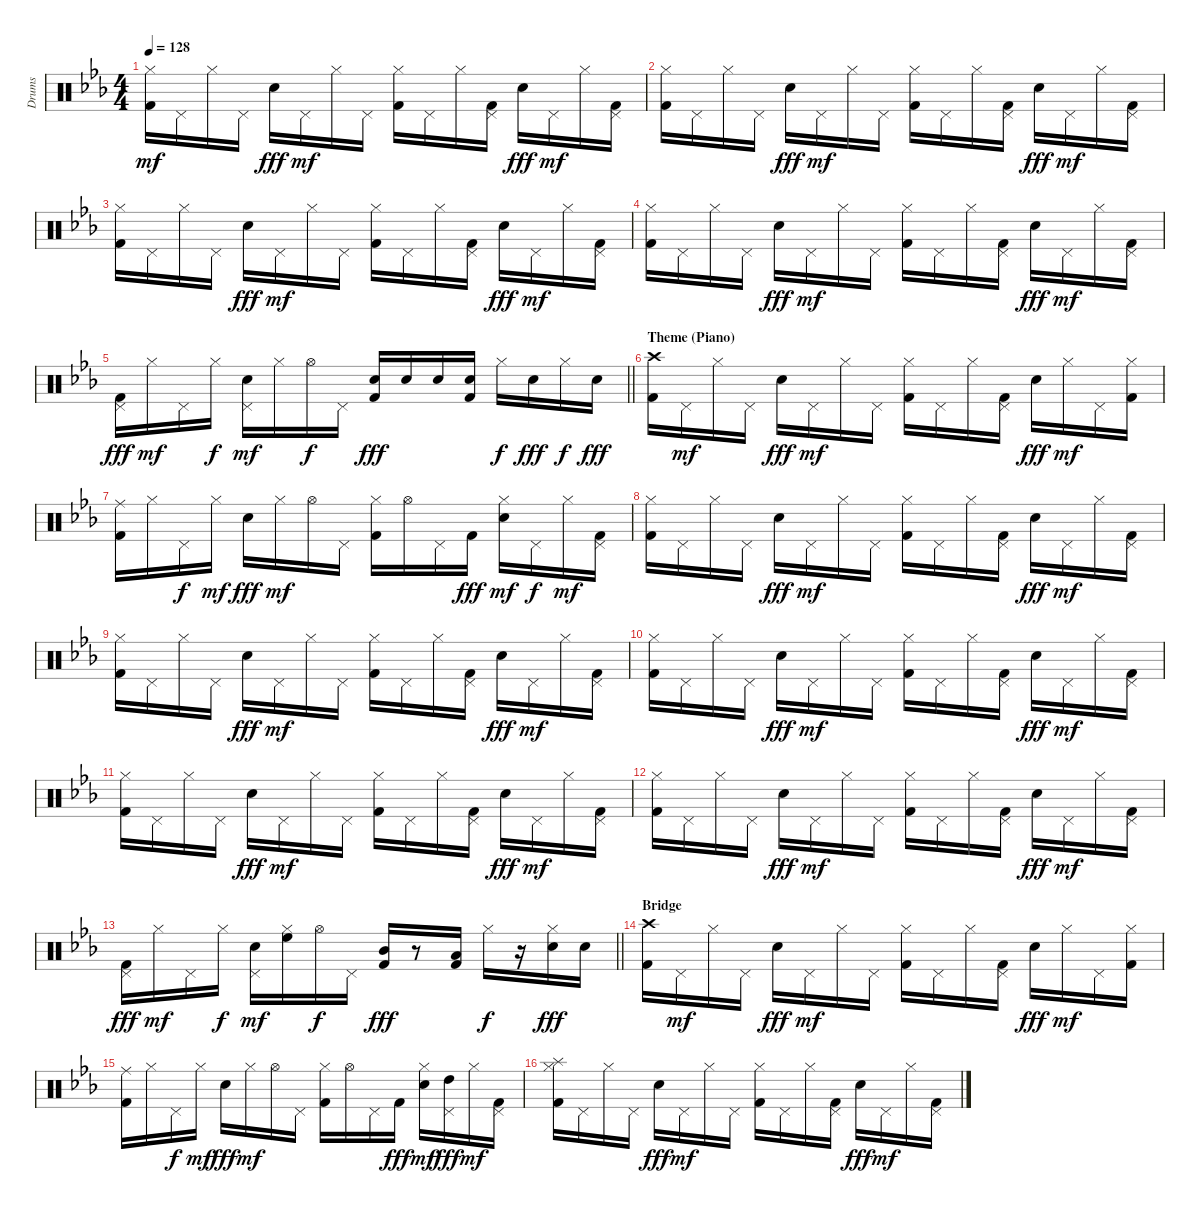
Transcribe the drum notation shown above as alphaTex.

\track ("Drums" "Drums") {instrument percussion}
\staff {score}
\articulation defaults
\ts (4 4)
\tempo 128
\clef neutral
\ks cminor
("Kick (hit) 2" "Hi-Hat (closed)").16{dy mf} "Pedal Hi-Hat (hit)".16 "Hi-Hat (closed)".16 "Pedal Hi-Hat (hit)".16 "Electric Snare (hit)".16{dy fff} "Pedal Hi-Hat (hit)".16{dy mf} "Hi-Hat (closed)".16 "Pedal Hi-Hat (hit)".16 ("Kick (hit) 2" "Hi-Hat (closed)").16 "Pedal Hi-Hat (hit)".16 "Hi-Hat (closed)".16 ("Kick (hit) 2" "Pedal Hi-Hat (hit)").16 "Electric Snare (hit)".16{dy fff} "Pedal Hi-Hat (hit)".16{dy mf} "Hi-Hat (closed)".16 ("Kick (hit) 2" "Pedal Hi-Hat (hit)").16 |
("Kick (hit) 2" "Hi-Hat (closed)").16 "Pedal Hi-Hat (hit)".16 "Hi-Hat (closed)".16 "Pedal Hi-Hat (hit)".16 "Electric Snare (hit)".16{dy fff} "Pedal Hi-Hat (hit)".16{dy mf} "Hi-Hat (closed)".16 "Pedal Hi-Hat (hit)".16 ("Kick (hit) 2" "Hi-Hat (closed)").16 "Pedal Hi-Hat (hit)".16 "Hi-Hat (closed)".16 ("Kick (hit) 2" "Pedal Hi-Hat (hit)").16 "Electric Snare (hit)".16{dy fff} "Pedal Hi-Hat (hit)".16{dy mf} "Hi-Hat (closed)".16 ("Kick (hit) 2" "Pedal Hi-Hat (hit)").16 |
("Kick (hit) 2" "Hi-Hat (closed)").16 "Pedal Hi-Hat (hit)".16 "Hi-Hat (closed)".16 "Pedal Hi-Hat (hit)".16 "Electric Snare (hit)".16{dy fff} "Pedal Hi-Hat (hit)".16{dy mf} "Hi-Hat (closed)".16 "Pedal Hi-Hat (hit)".16 ("Kick (hit) 2" "Hi-Hat (closed)").16 "Pedal Hi-Hat (hit)".16 "Hi-Hat (closed)".16 ("Kick (hit) 2" "Pedal Hi-Hat (hit)").16 "Electric Snare (hit)".16{dy fff} "Pedal Hi-Hat (hit)".16{dy mf} "Hi-Hat (closed)".16 ("Kick (hit) 2" "Pedal Hi-Hat (hit)").16 |
("Kick (hit) 2" "Hi-Hat (closed)").16 "Pedal Hi-Hat (hit)".16 "Hi-Hat (closed)".16 "Pedal Hi-Hat (hit)".16 "Electric Snare (hit)".16{dy fff} "Pedal Hi-Hat (hit)".16{dy mf} "Hi-Hat (closed)".16 "Pedal Hi-Hat (hit)".16 ("Kick (hit) 2" "Hi-Hat (closed)").16 "Pedal Hi-Hat (hit)".16 "Hi-Hat (closed)".16 ("Kick (hit) 2" "Pedal Hi-Hat (hit)").16 "Electric Snare (hit)".16{dy fff} "Pedal Hi-Hat (hit)".16{dy mf} "Hi-Hat (closed)".16 ("Kick (hit) 2" "Pedal Hi-Hat (hit)").16 |
\barLineRight lightlight
("Kick (hit) 2" "Pedal Hi-Hat (hit)").16{dy fff} "Hi-Hat (closed)".16{dy mf} "Pedal Hi-Hat (hit)".16 "Hi-Hat (closed)".16{dy f} ("Electric Snare (hit)" "Pedal Hi-Hat (hit)").16{dy mf} "Hi-Hat (closed)".16 "Hi-Hat (open)".16{dy f} "Pedal Hi-Hat (hit)".16 ("Electric Snare (hit)" "Kick (hit) 2").16{dy fff} "Electric Snare (hit)".16 "Electric Snare (hit)".16 ("Electric Snare (hit)" "Kick (hit) 2").16 "Hi-Hat (closed)".16{dy f} "Electric Snare (hit)".16{dy fff} "Hi-Hat (closed)".16{dy f} "Electric Snare (hit)".16{dy fff} |
\section ("" "Theme (Piano)")
("Kick (hit) 2" "Crash high (hit)").16 "Pedal Hi-Hat (hit)".16{dy mf} "Hi-Hat (closed)".16 "Pedal Hi-Hat (hit)".16 "Electric Snare (hit)".16{dy fff} "Pedal Hi-Hat (hit)".16{dy mf} "Hi-Hat (closed)".16 "Pedal Hi-Hat (hit)".16 ("Kick (hit) 2" "Hi-Hat (closed)").16 "Pedal Hi-Hat (hit)".16 "Hi-Hat (closed)".16 ("Kick (hit) 2" "Pedal Hi-Hat (hit)").16 "Electric Snare (hit)".16{dy fff} "Hi-Hat (closed)".16{dy mf} "Pedal Hi-Hat (hit)".16 ("Kick (hit) 2" "Hi-Hat (closed)").16 |
("Kick (hit) 2" "Ride (middle)").16 "Hi-Hat (closed)".16 "Pedal Hi-Hat (hit)".16{dy f} "Hi-Hat (closed)".16{dy mf} "Electric Snare (hit)".16{dy fff} "Hi-Hat (closed)".16{dy mf} "Hi-Hat (open)".16 "Pedal Hi-Hat (hit)".16 ("Kick (hit) 2" "Hi-Hat (closed)").16 "Hi-Hat (open)".16 "Pedal Hi-Hat (hit)".16 "Kick (hit) 2".16{dy fff} ("Electric Snare (hit)" "Hi-Hat (closed)").16{dy mf} "Pedal Hi-Hat (hit)".16{dy f} "Hi-Hat (closed)".16{dy mf} ("Kick (hit) 2" "Pedal Hi-Hat (hit)").16 |
("Kick (hit) 2" "Hi-Hat (closed)").16 "Pedal Hi-Hat (hit)".16 "Hi-Hat (closed)".16 "Pedal Hi-Hat (hit)".16 "Electric Snare (hit)".16{dy fff} "Pedal Hi-Hat (hit)".16{dy mf} "Hi-Hat (closed)".16 "Pedal Hi-Hat (hit)".16 ("Kick (hit) 2" "Hi-Hat (closed)").16 "Pedal Hi-Hat (hit)".16 "Hi-Hat (closed)".16 ("Kick (hit) 2" "Pedal Hi-Hat (hit)").16 "Electric Snare (hit)".16{dy fff} "Pedal Hi-Hat (hit)".16{dy mf} "Hi-Hat (closed)".16 ("Kick (hit) 2" "Pedal Hi-Hat (hit)").16 |
("Kick (hit) 2" "Hi-Hat (closed)").16 "Pedal Hi-Hat (hit)".16 "Hi-Hat (closed)".16 "Pedal Hi-Hat (hit)".16 "Electric Snare (hit)".16{dy fff} "Pedal Hi-Hat (hit)".16{dy mf} "Hi-Hat (closed)".16 "Pedal Hi-Hat (hit)".16 ("Kick (hit) 2" "Hi-Hat (closed)").16 "Pedal Hi-Hat (hit)".16 "Hi-Hat (closed)".16 ("Kick (hit) 2" "Pedal Hi-Hat (hit)").16 "Electric Snare (hit)".16{dy fff} "Pedal Hi-Hat (hit)".16{dy mf} "Hi-Hat (closed)".16 ("Kick (hit) 2" "Pedal Hi-Hat (hit)").16 |
("Kick (hit) 2" "Hi-Hat (closed)").16 "Pedal Hi-Hat (hit)".16 "Hi-Hat (closed)".16 "Pedal Hi-Hat (hit)".16 "Electric Snare (hit)".16{dy fff} "Pedal Hi-Hat (hit)".16{dy mf} "Hi-Hat (closed)".16 "Pedal Hi-Hat (hit)".16 ("Kick (hit) 2" "Hi-Hat (closed)").16 "Pedal Hi-Hat (hit)".16 "Hi-Hat (closed)".16 ("Kick (hit) 2" "Pedal Hi-Hat (hit)").16 "Electric Snare (hit)".16{dy fff} "Pedal Hi-Hat (hit)".16{dy mf} "Hi-Hat (closed)".16 ("Kick (hit) 2" "Pedal Hi-Hat (hit)").16 |
("Kick (hit) 2" "Hi-Hat (closed)").16 "Pedal Hi-Hat (hit)".16 "Hi-Hat (closed)".16 "Pedal Hi-Hat (hit)".16 "Electric Snare (hit)".16{dy fff} "Pedal Hi-Hat (hit)".16{dy mf} "Hi-Hat (closed)".16 "Pedal Hi-Hat (hit)".16 ("Kick (hit) 2" "Hi-Hat (closed)").16 "Pedal Hi-Hat (hit)".16 "Hi-Hat (closed)".16 ("Kick (hit) 2" "Pedal Hi-Hat (hit)").16 "Electric Snare (hit)".16{dy fff} "Pedal Hi-Hat (hit)".16{dy mf} "Hi-Hat (closed)".16 ("Kick (hit) 2" "Pedal Hi-Hat (hit)").16 |
("Kick (hit) 2" "Hi-Hat (closed)").16 "Pedal Hi-Hat (hit)".16 "Hi-Hat (closed)".16 "Pedal Hi-Hat (hit)".16 "Electric Snare (hit)".16{dy fff} "Pedal Hi-Hat (hit)".16{dy mf} "Hi-Hat (closed)".16 "Pedal Hi-Hat (hit)".16 ("Kick (hit) 2" "Hi-Hat (closed)").16 "Pedal Hi-Hat (hit)".16 "Hi-Hat (closed)".16 ("Kick (hit) 2" "Pedal Hi-Hat (hit)").16 "Electric Snare (hit)".16{dy fff} "Pedal Hi-Hat (hit)".16{dy mf} "Hi-Hat (closed)".16 ("Kick (hit) 2" "Pedal Hi-Hat (hit)").16 |
\barLineRight lightlight
("Kick (hit) 2" "Pedal Hi-Hat (hit)").16{dy fff} "Hi-Hat (closed)".16{dy mf} "Pedal Hi-Hat (hit)".16 "Hi-Hat (closed)".16{dy f} ("Electric Snare (hit)" "Pedal Hi-Hat (hit)").16{dy mf} ("High Floor Tom (hit)" "Hi-Hat (closed)").16 "Hi-Hat (open)".16{dy f} "Pedal Hi-Hat (hit)".16 ("Kick (hit) 2" "Mid Tom (hit)").16{dy fff} r.8 ("Kick (hit) 2" "Low Tom (hit)").16 "Hi-Hat (closed)".16{dy f} r.16 ("Electric Snare (hit)" "Hi-Hat (closed)").16{dy fff} "Electric Snare (hit)".16 |
\section ("" "Bridge")
("Kick (hit) 2" "Crash high (hit)").16 "Pedal Hi-Hat (hit)".16{dy mf} "Hi-Hat (closed)".16 "Pedal Hi-Hat (hit)".16 "Electric Snare (hit)".16{dy fff} "Pedal Hi-Hat (hit)".16{dy mf} "Hi-Hat (closed)".16 "Pedal Hi-Hat (hit)".16 ("Kick (hit) 2" "Hi-Hat (closed)").16 "Pedal Hi-Hat (hit)".16 "Hi-Hat (closed)".16 ("Kick (hit) 2" "Pedal Hi-Hat (hit)").16 "Electric Snare (hit)".16{dy fff} "Hi-Hat (closed)".16{dy mf} "Pedal Hi-Hat (hit)".16 ("Kick (hit) 2" "Hi-Hat (closed)").16 |
("Kick (hit) 2" "Ride (middle)").16 "Hi-Hat (closed)".16 "Pedal Hi-Hat (hit)".16{dy f} "Hi-Hat (closed)".16{dy mf} "Electric Snare (hit)".16{dy fff} "Hi-Hat (closed)".16{dy mf} "Hi-Hat (open)".16 "Pedal Hi-Hat (hit)".16 ("Kick (hit) 2" "Hi-Hat (closed)").16 "Hi-Hat (open)".16 "Pedal Hi-Hat (hit)".16 "Kick (hit) 2".16{dy fff} ("Electric Snare (hit)" "Hi-Hat (closed)").16{dy mf} ("High Tom (hit)" "Pedal Hi-Hat (hit)").16{dy fff} "Hi-Hat (closed)".16{dy mf} ("Kick (hit) 2" "Pedal Hi-Hat (hit)").16 |
("Kick (hit) 2" "Splash (hit)" "Hi-Hat (closed)").16 "Pedal Hi-Hat (hit)".16 "Hi-Hat (closed)".16 "Pedal Hi-Hat (hit)".16 "Electric Snare (hit)".16{dy fff} "Pedal Hi-Hat (hit)".16{dy mf} "Hi-Hat (closed)".16 "Pedal Hi-Hat (hit)".16 ("Kick (hit) 2" "Hi-Hat (closed)").16 "Pedal Hi-Hat (hit)".16 "Hi-Hat (closed)".16 ("Kick (hit) 2" "Pedal Hi-Hat (hit)").16 "Electric Snare (hit)".16{dy fff} "Pedal Hi-Hat (hit)".16{dy mf} "Hi-Hat (closed)".16 ("Kick (hit) 2" "Pedal Hi-Hat (hit)").16
